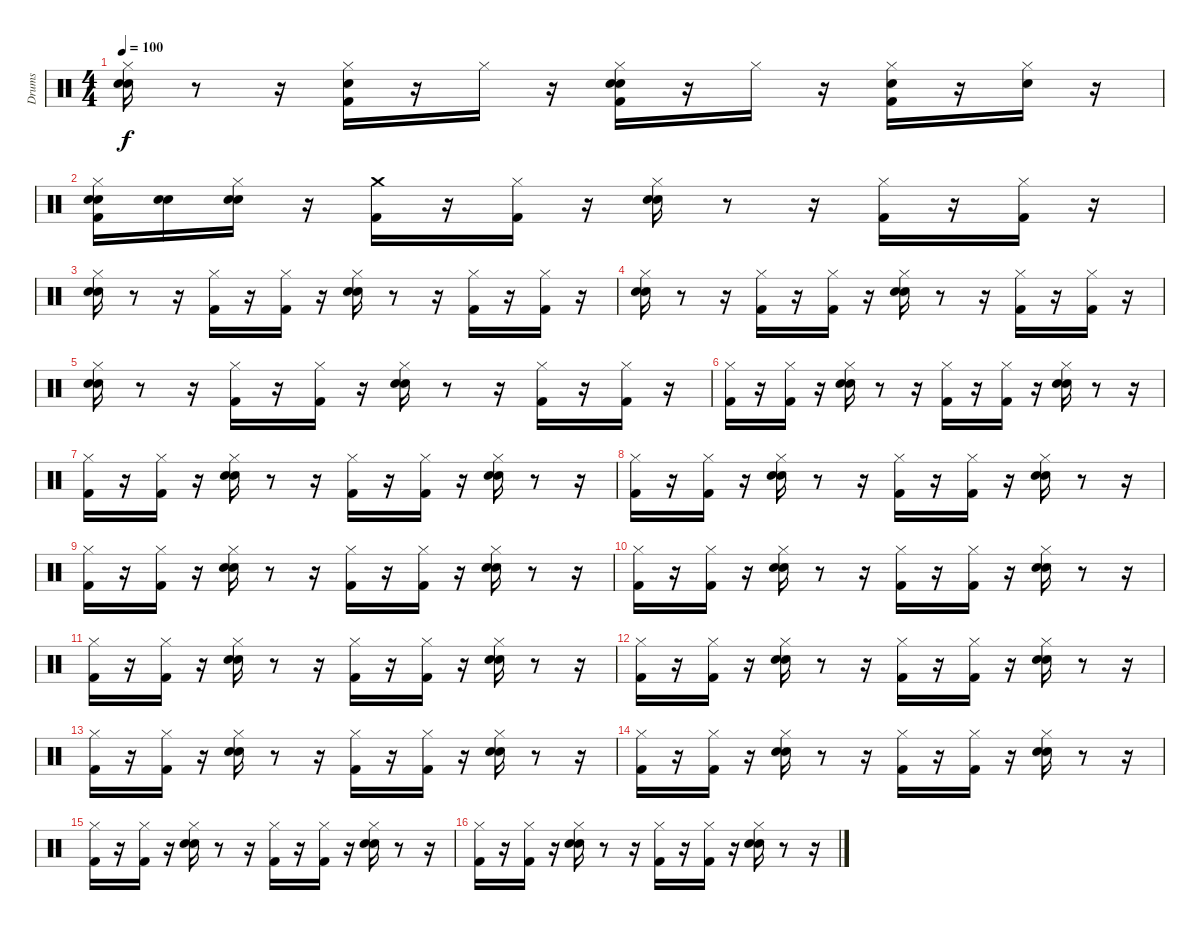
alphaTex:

\track ("Drums" "Drums") {instrument percussion}
\staff {score}
\articulation defaults
\ts (4 4)
\tempo 100
\clef neutral
\ks c
("Snare (hit) 2" "Hi-Hat (closed)" "Hand Clap (hit)").16{dy f} r.8 r.16 ("Hi-Hat (closed)" "Snare (hit) 2" "Kick (hit) 2").16 r.16 "Hi-Hat (closed)".16 r.16 ("Hi-Hat (closed)" "Hand Clap (hit)" "Kick (hit) 2" "Snare (hit) 2").16 r.16 "Hi-Hat (closed)".16 r.16 ("Hi-Hat (closed)" "Snare (hit) 2" "Kick (hit) 2").16 r.16 ("Snare (hit) 2" "Hi-Hat (closed)").16 r.16 |
("Hand Clap (hit)" "Kick (hit) 2" "Hi-Hat (closed)" "Snare (hit) 2").16 ("Snare (hit)" "Snare (hit) 2").16 ("Snare (hit)" "Snare (hit) 2" "Hi-Hat (closed)").16 r.16 ("Crash medium (hit)" "Kick (hit) 2").16 r.16 ("Hi-Hat (closed)" "Kick (hit) 2").16 r.16 ("Hand Clap (hit)" "Hi-Hat (closed)" "Snare (hit) 2").16 r.8 r.16 ("Kick (hit) 2" "Hi-Hat (closed)").16 r.16 ("Kick (hit) 2" "Hi-Hat (closed)").16 r.16 |
("Hi-Hat (closed)" "Hand Clap (hit)" "Snare (hit) 2").16 r.8 r.16 ("Hi-Hat (closed)" "Kick (hit) 2").16 r.16 ("Kick (hit) 2" "Hi-Hat (closed)").16 r.16 ("Snare (hit) 2" "Hi-Hat (closed)" "Hand Clap (hit)").16 r.8 r.16 ("Hi-Hat (closed)" "Kick (hit) 2").16 r.16 ("Hi-Hat (closed)" "Kick (hit) 2").16 r.16 |
("Snare (hit) 2" "Hand Clap (hit)" "Hi-Hat (closed)").16 r.8 r.16 ("Hi-Hat (closed)" "Kick (hit) 2").16 r.16 ("Kick (hit) 2" "Hi-Hat (closed)").16 r.16 ("Snare (hit) 2" "Hi-Hat (closed)" "Hand Clap (hit)").16 r.8 r.16 ("Kick (hit) 2" "Hi-Hat (closed)").16 r.16 ("Hi-Hat (closed)" "Kick (hit) 2").16 r.16 |
("Hi-Hat (closed)" "Snare (hit) 2" "Hand Clap (hit)").16 r.8 r.16 ("Hi-Hat (closed)" "Kick (hit) 2").16 r.16 ("Kick (hit) 2" "Hi-Hat (closed)").16 r.16 ("Hi-Hat (closed)" "Hand Clap (hit)" "Snare (hit) 2").16 r.8 r.16 ("Hi-Hat (closed)" "Kick (hit) 2").16 r.16 ("Kick (hit) 2" "Hi-Hat (closed)").16 r.16 |
("Hi-Hat (closed)" "Kick (hit) 2").16 r.16 ("Hi-Hat (closed)" "Kick (hit) 2").16 r.16 ("Snare (hit) 2" "Hand Clap (hit)" "Hi-Hat (closed)").16 r.8 r.16 ("Kick (hit) 2" "Hi-Hat (closed)").16 r.16 ("Hi-Hat (closed)" "Kick (hit) 2").16 r.16 ("Hi-Hat (closed)" "Snare (hit) 2" "Hand Clap (hit)").16 r.8 r.16 |
("Kick (hit) 2" "Hi-Hat (closed)").16 r.16 ("Kick (hit) 2" "Hi-Hat (closed)").16 r.16 ("Hi-Hat (closed)" "Snare (hit) 2" "Hand Clap (hit)").16 r.8 r.16 ("Kick (hit) 2" "Hi-Hat (closed)").16 r.16 ("Kick (hit) 2" "Hi-Hat (closed)").16 r.16 ("Hand Clap (hit)" "Snare (hit) 2" "Hi-Hat (closed)").16 r.8 r.16 |
("Kick (hit) 2" "Hi-Hat (closed)").16 r.16 ("Hi-Hat (closed)" "Kick (hit) 2").16 r.16 ("Hi-Hat (closed)" "Hand Clap (hit)" "Snare (hit) 2").16 r.8 r.16 ("Hi-Hat (closed)" "Kick (hit) 2").16 r.16 ("Hi-Hat (closed)" "Kick (hit) 2").16 r.16 ("Snare (hit) 2" "Hand Clap (hit)" "Hi-Hat (closed)").16 r.8 r.16 |
("Kick (hit) 2" "Hi-Hat (closed)").16 r.16 ("Kick (hit) 2" "Hi-Hat (closed)").16 r.16 ("Snare (hit) 2" "Hand Clap (hit)" "Hi-Hat (closed)").16 r.8 r.16 ("Hi-Hat (closed)" "Kick (hit) 2").16 r.16 ("Kick (hit) 2" "Hi-Hat (closed)").16 r.16 ("Hi-Hat (closed)" "Snare (hit) 2" "Hand Clap (hit)").16 r.8 r.16 |
("Hi-Hat (closed)" "Kick (hit) 2").16 r.16 ("Hi-Hat (closed)" "Kick (hit) 2").16 r.16 ("Hand Clap (hit)" "Hi-Hat (closed)" "Snare (hit) 2").16 r.8 r.16 ("Hi-Hat (closed)" "Kick (hit) 2").16 r.16 ("Hi-Hat (closed)" "Kick (hit) 2").16 r.16 ("Hand Clap (hit)" "Snare (hit) 2" "Hi-Hat (closed)").16 r.8 r.16 |
("Hi-Hat (closed)" "Kick (hit) 2").16 r.16 ("Hi-Hat (closed)" "Kick (hit) 2").16 r.16 ("Hand Clap (hit)" "Snare (hit) 2" "Hi-Hat (closed)").16 r.8 r.16 ("Hi-Hat (closed)" "Kick (hit) 2").16 r.16 ("Hi-Hat (closed)" "Kick (hit) 2").16 r.16 ("Hand Clap (hit)" "Snare (hit) 2" "Hi-Hat (closed)").16 r.8 r.16 |
("Kick (hit) 2" "Hi-Hat (closed)").16 r.16 ("Hi-Hat (closed)" "Kick (hit) 2").16 r.16 ("Hand Clap (hit)" "Hi-Hat (closed)" "Snare (hit) 2").16 r.8 r.16 ("Hi-Hat (closed)" "Kick (hit) 2").16 r.16 ("Hi-Hat (closed)" "Kick (hit) 2").16 r.16 ("Hand Clap (hit)" "Hi-Hat (closed)" "Snare (hit) 2").16 r.8 r.16 |
("Hi-Hat (closed)" "Kick (hit) 2").16 r.16 ("Kick (hit) 2" "Hi-Hat (closed)").16 r.16 ("Hand Clap (hit)" "Snare (hit) 2" "Hi-Hat (closed)").16 r.8 r.16 ("Kick (hit) 2" "Hi-Hat (closed)").16 r.16 ("Kick (hit) 2" "Hi-Hat (closed)").16 r.16 ("Hi-Hat (closed)" "Hand Clap (hit)" "Snare (hit) 2").16 r.8 r.16 |
("Kick (hit) 2" "Hi-Hat (closed)").16 r.16 ("Kick (hit) 2" "Hi-Hat (closed)").16 r.16 ("Snare (hit) 2" "Hand Clap (hit)" "Hi-Hat (closed)").16 r.8 r.16 ("Kick (hit) 2" "Hi-Hat (closed)").16 r.16 ("Hi-Hat (closed)" "Kick (hit) 2").16 r.16 ("Hand Clap (hit)" "Snare (hit) 2" "Hi-Hat (closed)").16 r.8 r.16 |
("Hi-Hat (closed)" "Kick (hit) 2").16 r.16 ("Hi-Hat (closed)" "Kick (hit) 2").16 r.16 ("Snare (hit) 2" "Hand Clap (hit)" "Hi-Hat (closed)").16 r.8 r.16 ("Hi-Hat (closed)" "Kick (hit) 2").16 r.16 ("Hi-Hat (closed)" "Kick (hit) 2").16 r.16 ("Hand Clap (hit)" "Snare (hit) 2" "Hi-Hat (closed)").16 r.8 r.16 |
("Hi-Hat (closed)" "Kick (hit) 2").16 r.16 ("Kick (hit) 2" "Hi-Hat (closed)").16 r.16 ("Hand Clap (hit)" "Hi-Hat (closed)" "Snare (hit) 2").16 r.8 r.16 ("Hi-Hat (closed)" "Kick (hit) 2").16 r.16 ("Hi-Hat (closed)" "Kick (hit) 2").16 r.16 ("Snare (hit) 2" "Hand Clap (hit)" "Hi-Hat (closed)").16 r.8 r.16
